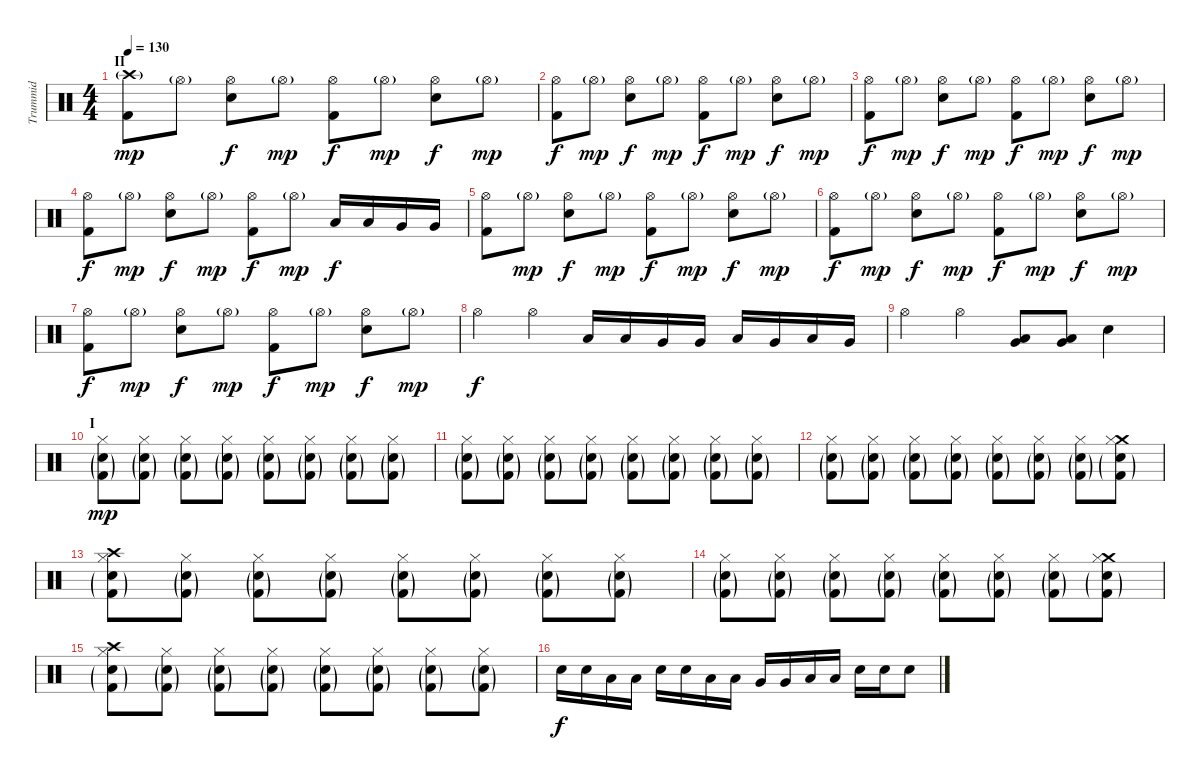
\track ("Trummid" "Trummid") {instrument percussion}
\staff {score}
\articulation defaults
\ts (4 4)
\section ("" "II")
\tempo 130
\clef neutral
\ks c
("Crash high (hit)"{g} "Kick (hit) 2").8{dy mp} "Hi-Hat (open)"{g}.8 ("Hi-Hat (open)" "Snare (hit) 2").8{dy f} "Hi-Hat (open)"{g}.8{dy mp} ("Hi-Hat (open)" "Kick (hit) 2").8{dy f} "Hi-Hat (open)"{g}.8{dy mp} ("Hi-Hat (open)" "Snare (hit) 2").8{dy f} "Hi-Hat (open)"{g}.8{dy mp} |
("Hi-Hat (open)" "Kick (hit) 2").8{dy f} "Hi-Hat (open)"{g}.8{dy mp} ("Hi-Hat (open)" "Snare (hit) 2").8{dy f} "Hi-Hat (open)"{g}.8{dy mp} ("Hi-Hat (open)" "Kick (hit) 2").8{dy f} "Hi-Hat (open)"{g}.8{dy mp} ("Hi-Hat (open)" "Snare (hit) 2").8{dy f} "Hi-Hat (open)"{g}.8{dy mp} |
("Hi-Hat (open)" "Kick (hit) 2").8{dy f} "Hi-Hat (open)"{g}.8{dy mp} ("Hi-Hat (open)" "Snare (hit) 2").8{dy f} "Hi-Hat (open)"{g}.8{dy mp} ("Hi-Hat (open)" "Kick (hit) 2").8{dy f} "Hi-Hat (open)"{g}.8{dy mp} ("Hi-Hat (open)" "Snare (hit) 2").8{dy f} "Hi-Hat (open)"{g}.8{dy mp} |
("Hi-Hat (open)" "Kick (hit) 2").8{dy f} "Hi-Hat (open)"{g}.8{dy mp} ("Hi-Hat (open)" "Snare (hit) 2").8{dy f} "Hi-Hat (open)"{g}.8{dy mp} ("Hi-Hat (open)" "Kick (hit) 2").8{dy f} "Hi-Hat (open)"{g}.8{dy mp} "Low Tom (hit)".16{dy f} "Low Tom (hit)".16 "Very Low Tom (hit)".16 "Very Low Tom (hit)".16 |
("Hi-Hat (open)" "Kick (hit) 2").8 "Hi-Hat (open)"{g}.8{dy mp} ("Hi-Hat (open)" "Snare (hit) 2").8{dy f} "Hi-Hat (open)"{g}.8{dy mp} ("Hi-Hat (open)" "Kick (hit) 2").8{dy f} "Hi-Hat (open)"{g}.8{dy mp} ("Hi-Hat (open)" "Snare (hit) 2").8{dy f} "Hi-Hat (open)"{g}.8{dy mp} |
("Hi-Hat (open)" "Kick (hit) 2").8{dy f} "Hi-Hat (open)"{g}.8{dy mp} ("Hi-Hat (open)" "Snare (hit) 2").8{dy f} "Hi-Hat (open)"{g}.8{dy mp} ("Hi-Hat (open)" "Kick (hit) 2").8{dy f} "Hi-Hat (open)"{g}.8{dy mp} ("Hi-Hat (open)" "Snare (hit) 2").8{dy f} "Hi-Hat (open)"{g}.8{dy mp} |
("Hi-Hat (open)" "Kick (hit) 2").8{dy f} "Hi-Hat (open)"{g}.8{dy mp} ("Hi-Hat (open)" "Snare (hit) 2").8{dy f} "Hi-Hat (open)"{g}.8{dy mp} ("Hi-Hat (open)" "Kick (hit) 2").8{dy f} "Hi-Hat (open)"{g}.8{dy mp} ("Hi-Hat (open)" "Snare (hit) 2").8{dy f} "Hi-Hat (open)"{g}.8{dy mp} |
"Hi-Hat (open)".4{dy f} "Hi-Hat (open)".4 "Low Tom (hit)".16 "Low Tom (hit)".16 "Very Low Tom (hit)".16 "Very Low Tom (hit)".16 "Low Tom (hit)".16 "Very Low Tom (hit)".16 "Low Tom (hit)".16 "Very Low Tom (hit)".16 |
"Hi-Hat (open)".4 "Hi-Hat (open)".4 ("Low Tom (hit)" "Very Low Tom (hit)").8{bd 60} ("Low Tom (hit)" "Very Low Tom (hit)").8{bd 60} "Snare (hit) 2".4 |
\section ("" "I")
("Hi-Hat (closed)" "Snare (hit) 2"{g} "Kick (hit) 2"{g}).8{dy mp} ("Hi-Hat (closed)" "Snare (hit) 2"{g} "Kick (hit) 2"{g}).8 ("Hi-Hat (closed)" "Snare (hit) 2"{g} "Kick (hit) 2"{g}).8 ("Hi-Hat (closed)" "Snare (hit) 2"{g} "Kick (hit) 2"{g}).8 ("Hi-Hat (closed)" "Snare (hit) 2"{g} "Kick (hit) 2"{g}).8 ("Hi-Hat (closed)" "Snare (hit) 2"{g} "Kick (hit) 2"{g}).8 ("Hi-Hat (closed)" "Snare (hit) 2"{g} "Kick (hit) 2"{g}).8 ("Hi-Hat (closed)" "Snare (hit) 2"{g} "Kick (hit) 2"{g}).8 |
("Hi-Hat (closed)" "Snare (hit) 2"{g} "Kick (hit) 2"{g}).8 ("Hi-Hat (closed)" "Snare (hit) 2"{g} "Kick (hit) 2"{g}).8 ("Hi-Hat (closed)" "Snare (hit) 2"{g} "Kick (hit) 2"{g}).8 ("Hi-Hat (closed)" "Snare (hit) 2"{g} "Kick (hit) 2"{g}).8 ("Hi-Hat (closed)" "Snare (hit) 2"{g} "Kick (hit) 2"{g}).8 ("Hi-Hat (closed)" "Snare (hit) 2"{g} "Kick (hit) 2"{g}).8 ("Hi-Hat (closed)" "Snare (hit) 2"{g} "Kick (hit) 2"{g}).8 ("Hi-Hat (closed)" "Snare (hit) 2"{g} "Kick (hit) 2"{g}).8 |
("Hi-Hat (closed)" "Snare (hit) 2"{g} "Kick (hit) 2"{g}).8 ("Hi-Hat (closed)" "Snare (hit) 2"{g} "Kick (hit) 2"{g}).8 ("Hi-Hat (closed)" "Snare (hit) 2"{g} "Kick (hit) 2"{g}).8 ("Hi-Hat (closed)" "Snare (hit) 2"{g} "Kick (hit) 2"{g}).8 ("Hi-Hat (closed)" "Snare (hit) 2"{g} "Kick (hit) 2"{g}).8 ("Hi-Hat (closed)" "Snare (hit) 2"{g} "Kick (hit) 2"{g}).8 ("Hi-Hat (closed)" "Snare (hit) 2"{g} "Kick (hit) 2"{g}).8 ("Crash medium (hit)" "Hi-Hat (closed)" "Snare (hit) 2"{g} "Kick (hit) 2"{g}).8 |
("Crash high (hit)" "Hi-Hat (closed)" "Snare (hit) 2"{g} "Kick (hit) 2"{g}).8 ("Hi-Hat (closed)" "Snare (hit) 2"{g} "Kick (hit) 2"{g}).8 ("Hi-Hat (closed)" "Snare (hit) 2"{g} "Kick (hit) 2"{g}).8 ("Hi-Hat (closed)" "Snare (hit) 2"{g} "Kick (hit) 2"{g}).8 ("Hi-Hat (closed)" "Snare (hit) 2"{g} "Kick (hit) 2"{g}).8 ("Hi-Hat (closed)" "Snare (hit) 2"{g} "Kick (hit) 2"{g}).8 ("Hi-Hat (closed)" "Snare (hit) 2"{g} "Kick (hit) 2"{g}).8 ("Hi-Hat (closed)" "Snare (hit) 2"{g} "Kick (hit) 2"{g}).8 |
("Hi-Hat (closed)" "Snare (hit) 2"{g} "Kick (hit) 2"{g}).8 ("Hi-Hat (closed)" "Snare (hit) 2"{g} "Kick (hit) 2"{g}).8 ("Hi-Hat (closed)" "Snare (hit) 2"{g} "Kick (hit) 2"{g}).8 ("Hi-Hat (closed)" "Snare (hit) 2"{g} "Kick (hit) 2"{g}).8 ("Hi-Hat (closed)" "Snare (hit) 2"{g} "Kick (hit) 2"{g}).8 ("Hi-Hat (closed)" "Snare (hit) 2"{g} "Kick (hit) 2"{g}).8 ("Hi-Hat (closed)" "Snare (hit) 2"{g} "Kick (hit) 2"{g}).8 ("Crash medium (hit)" "Hi-Hat (closed)" "Snare (hit) 2"{g} "Kick (hit) 2"{g}).8 |
("Crash high (hit)" "Hi-Hat (closed)" "Snare (hit) 2"{g} "Kick (hit) 2"{g}).8 ("Hi-Hat (closed)" "Snare (hit) 2"{g} "Kick (hit) 2"{g}).8 ("Hi-Hat (closed)" "Snare (hit) 2"{g} "Kick (hit) 2"{g}).8 ("Hi-Hat (closed)" "Snare (hit) 2"{g} "Kick (hit) 2"{g}).8 ("Hi-Hat (closed)" "Snare (hit) 2"{g} "Kick (hit) 2"{g}).8 ("Hi-Hat (closed)" "Snare (hit) 2"{g} "Kick (hit) 2"{g}).8 ("Hi-Hat (closed)" "Snare (hit) 2"{g} "Kick (hit) 2"{g}).8 ("Hi-Hat (closed)" "Snare (hit) 2"{g} "Kick (hit) 2"{g}).8 |
"Snare (hit) 2".16{dy f} "Snare (hit) 2".16 "Low Tom (hit)".16 "Low Tom (hit)".16 "Snare (hit) 2".16 "Snare (hit) 2".16 "Low Tom (hit)".16 "Low Tom (hit)".16 "Very Low Tom (hit)".16 "Very Low Tom (hit)".16 "Low Tom (hit)".16 "Low Tom (hit)".16 "Snare (hit) 2".16 "Snare (hit) 2".16 "Snare (hit) 2".8
